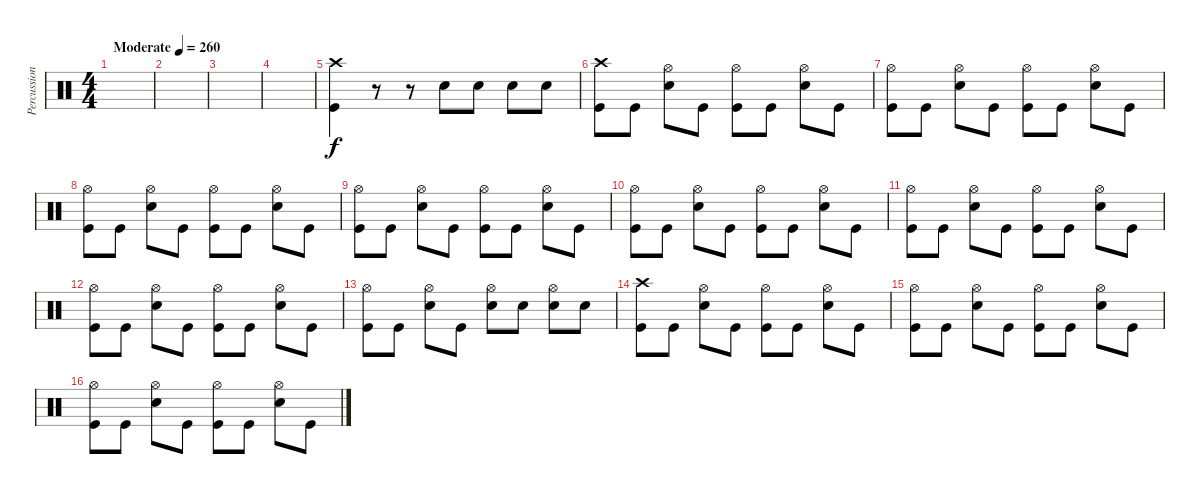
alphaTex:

\track ("Percussion" "Percussion") {instrument percussion}
\staff {score}
\articulation defaults
\ts (4 4)
\tempo (260 "Moderate")
\clef neutral
\ks c
|
|
|
|
("Crash high (hit)" "Kick (hit)").4 r.8 r.8 "Snare (hit) 2".8 "Snare (hit) 2".8 "Snare (hit) 2".8 "Snare (hit) 2".8 |
("Crash high (hit)" "Kick (hit)").8 "Kick (hit)".8 ("Hi-Hat (open)" "Snare (hit) 2").8 "Kick (hit)".8 ("Hi-Hat (open)" "Kick (hit)").8 "Kick (hit)".8 ("Hi-Hat (open)" "Snare (hit) 2").8 "Kick (hit)".8 |
("Hi-Hat (open)" "Kick (hit)").8 "Kick (hit)".8 ("Hi-Hat (open)" "Snare (hit) 2").8 "Kick (hit)".8 ("Hi-Hat (open)" "Kick (hit)").8 "Kick (hit)".8 ("Hi-Hat (open)" "Snare (hit) 2").8 "Kick (hit)".8 |
("Hi-Hat (open)" "Kick (hit)").8 "Kick (hit)".8 ("Hi-Hat (open)" "Snare (hit) 2").8 "Kick (hit)".8 ("Hi-Hat (open)" "Kick (hit)").8 "Kick (hit)".8 ("Hi-Hat (open)" "Snare (hit) 2").8 "Kick (hit)".8 |
("Hi-Hat (open)" "Kick (hit)").8 "Kick (hit)".8 ("Hi-Hat (open)" "Snare (hit) 2").8 "Kick (hit)".8 ("Hi-Hat (open)" "Kick (hit)").8 "Kick (hit)".8 ("Hi-Hat (open)" "Snare (hit) 2").8 "Kick (hit)".8 |
("Hi-Hat (open)" "Kick (hit)").8 "Kick (hit)".8 ("Hi-Hat (open)" "Snare (hit) 2").8 "Kick (hit)".8 ("Hi-Hat (open)" "Kick (hit)").8 "Kick (hit)".8 ("Hi-Hat (open)" "Snare (hit) 2").8 "Kick (hit)".8 |
("Hi-Hat (open)" "Kick (hit)").8 "Kick (hit)".8 ("Hi-Hat (open)" "Snare (hit) 2").8 "Kick (hit)".8 ("Hi-Hat (open)" "Kick (hit)").8 "Kick (hit)".8 ("Hi-Hat (open)" "Snare (hit) 2").8 "Kick (hit)".8 |
("Hi-Hat (open)" "Kick (hit)").8 "Kick (hit)".8 ("Hi-Hat (open)" "Snare (hit) 2").8 "Kick (hit)".8 ("Hi-Hat (open)" "Kick (hit)").8 "Kick (hit)".8 ("Hi-Hat (open)" "Snare (hit) 2").8 "Kick (hit)".8 |
("Hi-Hat (open)" "Kick (hit)").8 "Kick (hit)".8 ("Hi-Hat (open)" "Snare (hit) 2").8 "Kick (hit)".8 ("Hi-Hat (open)" "Snare (hit) 2").8 "Snare (hit) 2".8 ("Hi-Hat (open)" "Snare (hit) 2").8 "Snare (hit) 2".8 |
("Crash high (hit)" "Kick (hit)").8 "Kick (hit)".8 ("Hi-Hat (open)" "Snare (hit) 2").8 "Kick (hit)".8 ("Hi-Hat (open)" "Kick (hit)").8 "Kick (hit)".8 ("Hi-Hat (open)" "Snare (hit) 2").8 "Kick (hit)".8 |
("Hi-Hat (open)" "Kick (hit)").8 "Kick (hit)".8 ("Hi-Hat (open)" "Snare (hit) 2").8 "Kick (hit)".8 ("Hi-Hat (open)" "Kick (hit)").8 "Kick (hit)".8 ("Hi-Hat (open)" "Snare (hit) 2").8 "Kick (hit)".8 |
("Hi-Hat (open)" "Kick (hit)").8 "Kick (hit)".8 ("Hi-Hat (open)" "Snare (hit) 2").8 "Kick (hit)".8 ("Hi-Hat (open)" "Kick (hit)").8 "Kick (hit)".8 ("Hi-Hat (open)" "Snare (hit) 2").8 "Kick (hit)".8
